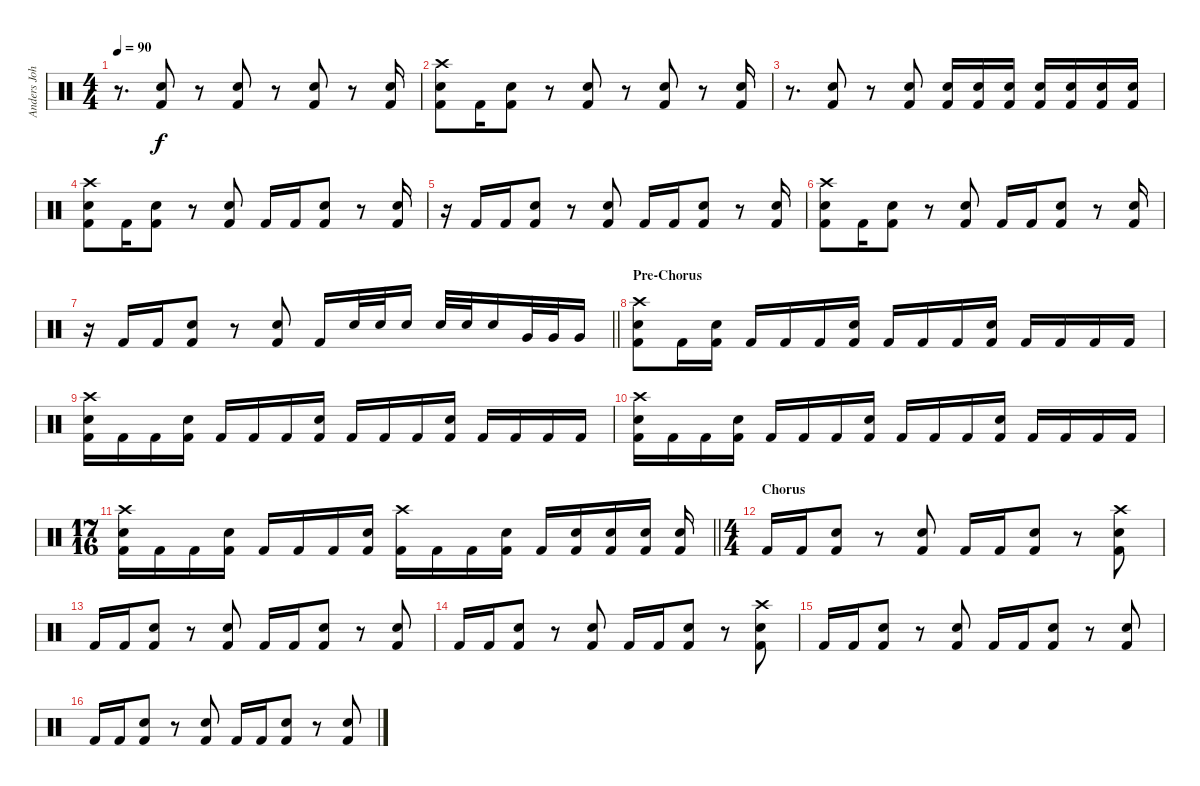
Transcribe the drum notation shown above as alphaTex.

\track ("Anders Johansson Drums" "Anders Joh") {instrument percussion}
\staff {score}
\articulation defaults
\ts (4 4)
\tempo 90
\clef neutral
\ks c
r.8{d dy f} ("Electric Snare (hit)" "Kick (hit) 2").8 r.8 ("Electric Snare (hit)" "Kick (hit) 2").8 r.8 ("Electric Snare (hit)" "Kick (hit) 2").8 r.8 ("Electric Snare (hit)" "Kick (hit) 2").16 |
("Crash high (hit)" "Electric Snare (hit)" "Kick (hit) 2").8 "Kick (hit) 2".16 ("Electric Snare (hit)" "Kick (hit) 2").8 r.8 ("Electric Snare (hit)" "Kick (hit) 2").8 r.8 ("Electric Snare (hit)" "Kick (hit) 2").8 r.8 ("Electric Snare (hit)" "Kick (hit) 2").16 |
r.8{d} ("Electric Snare (hit)" "Kick (hit) 2").8 r.8 ("Electric Snare (hit)" "Kick (hit) 2").8 ("Electric Snare (hit)" "Kick (hit) 2").16 ("Electric Snare (hit)" "Kick (hit) 2").16 ("Electric Snare (hit)" "Kick (hit) 2").16 ("Electric Snare (hit)" "Kick (hit) 2").16 ("Electric Snare (hit)" "Kick (hit) 2").16 ("Electric Snare (hit)" "Kick (hit) 2").16 ("Electric Snare (hit)" "Kick (hit) 2").16 |
("Crash high (hit)" "Electric Snare (hit)" "Kick (hit) 2").8 "Kick (hit) 2".16 ("Electric Snare (hit)" "Kick (hit) 2").8 r.8 ("Electric Snare (hit)" "Kick (hit) 2").8 "Kick (hit) 2".16 "Kick (hit) 2".16 ("Electric Snare (hit)" "Kick (hit) 2").8 r.8 ("Electric Snare (hit)" "Kick (hit) 2").16 |
r.16 "Kick (hit) 2".16 "Kick (hit) 2".16 ("Electric Snare (hit)" "Kick (hit) 2").8 r.8 ("Electric Snare (hit)" "Kick (hit) 2").8 "Kick (hit) 2".16 "Kick (hit) 2".16 ("Electric Snare (hit)" "Kick (hit) 2").8 r.8 ("Electric Snare (hit)" "Kick (hit) 2").16 |
("Crash high (hit)" "Electric Snare (hit)" "Kick (hit) 2").8 "Kick (hit) 2".16 ("Electric Snare (hit)" "Kick (hit) 2").8 r.8 ("Electric Snare (hit)" "Kick (hit) 2").8 "Kick (hit) 2".16 "Kick (hit) 2".16 ("Electric Snare (hit)" "Kick (hit) 2").8 r.8 ("Electric Snare (hit)" "Kick (hit) 2").16 |
\barLineRight lightlight
r.16 "Kick (hit) 2".16 "Kick (hit) 2".16 ("Electric Snare (hit)" "Kick (hit) 2").8 r.8 ("Electric Snare (hit)" "Kick (hit) 2").8 "Kick (hit) 2".16 "Electric Snare (hit)".32 "Electric Snare (hit)".32 "Electric Snare (hit)".16 "Snare (hit) 2".32 "Snare (hit) 2".32 "Snare (hit) 2".16 "Very Low Tom (hit)".32 "Very Low Tom (hit)".32 "Very Low Tom (hit)".16 |
\section ("" "Pre-Chorus")
("Crash high (hit)" "Electric Snare (hit)" "Kick (hit) 2").8 "Kick (hit) 2".16 ("Electric Snare (hit)" "Kick (hit) 2").16 "Kick (hit) 2".16 "Kick (hit) 2".16 "Kick (hit) 2".16 ("Electric Snare (hit)" "Kick (hit) 2").16 "Kick (hit) 2".16 "Kick (hit) 2".16 "Kick (hit) 2".16 ("Electric Snare (hit)" "Kick (hit) 2").16 "Kick (hit) 2".16 "Kick (hit) 2".16 "Kick (hit) 2".16 "Kick (hit) 2".16 |
("Crash high (hit)" "Electric Snare (hit)" "Kick (hit) 2").16 "Kick (hit) 2".16 "Kick (hit) 2".16 ("Electric Snare (hit)" "Kick (hit) 2").16 "Kick (hit) 2".16 "Kick (hit) 2".16 "Kick (hit) 2".16 ("Electric Snare (hit)" "Kick (hit) 2").16 "Kick (hit) 2".16 "Kick (hit) 2".16 "Kick (hit) 2".16 ("Electric Snare (hit)" "Kick (hit) 2").16 "Kick (hit) 2".16 "Kick (hit) 2".16 "Kick (hit) 2".16 "Kick (hit) 2".16 |
("Crash high (hit)" "Electric Snare (hit)" "Kick (hit) 2").16 "Kick (hit) 2".16 "Kick (hit) 2".16 ("Electric Snare (hit)" "Kick (hit) 2").16 "Kick (hit) 2".16 "Kick (hit) 2".16 "Kick (hit) 2".16 ("Electric Snare (hit)" "Kick (hit) 2").16 "Kick (hit) 2".16 "Kick (hit) 2".16 "Kick (hit) 2".16 ("Electric Snare (hit)" "Kick (hit) 2").16 "Kick (hit) 2".16 "Kick (hit) 2".16 "Kick (hit) 2".16 "Kick (hit) 2".16 |
\ts (17 16)
\barLineRight lightlight
("Crash high (hit)" "Electric Snare (hit)" "Kick (hit) 2").16 "Kick (hit) 2".16 "Kick (hit) 2".16 ("Electric Snare (hit)" "Kick (hit) 2").16 "Kick (hit) 2".16 "Kick (hit) 2".16 "Kick (hit) 2".16 ("Electric Snare (hit)" "Kick (hit) 2").16 ("Crash high (hit)" "Kick (hit) 2").16 "Kick (hit) 2".16 "Kick (hit) 2".16 ("Electric Snare (hit)" "Kick (hit) 2").16 "Kick (hit) 2".16 ("Electric Snare (hit)" "Kick (hit) 2").16 ("Electric Snare (hit)" "Kick (hit) 2").16 ("Electric Snare (hit)" "Kick (hit) 2").16 ("Electric Snare (hit)" "Kick (hit) 2").16 |
\ts (4 4)
\section ("" "Chorus")
"Kick (hit) 2".16 "Kick (hit) 2".16 ("Electric Snare (hit)" "Kick (hit) 2").8 r.8 ("Electric Snare (hit)" "Kick (hit) 2").8 "Kick (hit) 2".16 "Kick (hit) 2".16 ("Electric Snare (hit)" "Kick (hit) 2").8 r.8 ("Crash high (hit)" "Electric Snare (hit)" "Kick (hit) 2").8 |
"Kick (hit) 2".16 "Kick (hit) 2".16 ("Electric Snare (hit)" "Kick (hit) 2").8 r.8 ("Electric Snare (hit)" "Kick (hit) 2").8 "Kick (hit) 2".16 "Kick (hit) 2".16 ("Electric Snare (hit)" "Kick (hit) 2").8 r.8 ("Electric Snare (hit)" "Kick (hit) 2").8 |
"Kick (hit) 2".16 "Kick (hit) 2".16 ("Electric Snare (hit)" "Kick (hit) 2").8 r.8 ("Electric Snare (hit)" "Kick (hit) 2").8 "Kick (hit) 2".16 "Kick (hit) 2".16 ("Electric Snare (hit)" "Kick (hit) 2").8 r.8 ("Crash high (hit)" "Electric Snare (hit)" "Kick (hit) 2").8 |
"Kick (hit) 2".16 "Kick (hit) 2".16 ("Electric Snare (hit)" "Kick (hit) 2").8 r.8 ("Electric Snare (hit)" "Kick (hit) 2").8 "Kick (hit) 2".16 "Kick (hit) 2".16 ("Electric Snare (hit)" "Kick (hit) 2").8 r.8 ("Electric Snare (hit)" "Kick (hit) 2").8 |
"Kick (hit) 2".16 "Kick (hit) 2".16 ("Electric Snare (hit)" "Kick (hit) 2").8 r.8 ("Electric Snare (hit)" "Kick (hit) 2").8 "Kick (hit) 2".16 "Kick (hit) 2".16 ("Electric Snare (hit)" "Kick (hit) 2").8 r.8 ("Electric Snare (hit)" "Kick (hit) 2").8
